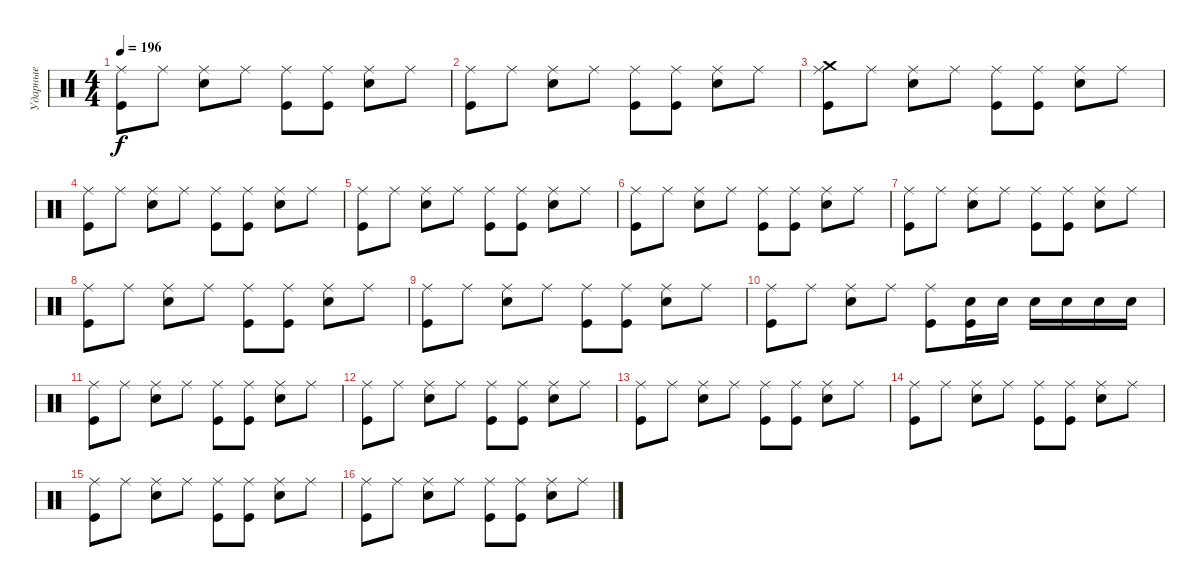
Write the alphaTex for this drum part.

\track ("Ударные" "Ударные") {instrument percussion}
\staff {score}
\articulation defaults
\ts (4 4)
\tempo 196
\clef neutral
\ks c
("Ride (middle)" "Kick (hit)").8{dy f} "Ride (middle)".8 ("Ride (middle)" "Electric Snare (hit)").8 "Ride (middle)".8 ("Ride (middle)" "Kick (hit)").8 ("Ride (middle)" "Kick (hit)").8 ("Ride (middle)" "Electric Snare (hit)").8 "Ride (middle)".8 |
("Ride (middle)" "Kick (hit)").8 "Ride (middle)".8 ("Ride (middle)" "Electric Snare (hit)").8 "Ride (middle)".8 ("Ride (middle)" "Kick (hit)").8 ("Ride (middle)" "Kick (hit)").8 ("Ride (middle)" "Electric Snare (hit)").8 "Ride (middle)".8 |
("Ride (middle)" "Crash medium (hit)" "Kick (hit)").8 "Ride (middle)".8 ("Ride (middle)" "Electric Snare (hit)").8 "Ride (middle)".8 ("Ride (middle)" "Kick (hit)").8 ("Ride (middle)" "Kick (hit)").8 ("Ride (middle)" "Electric Snare (hit)").8 "Ride (middle)".8 |
("Ride (middle)" "Kick (hit)").8 "Ride (middle)".8 ("Ride (middle)" "Electric Snare (hit)").8 "Ride (middle)".8 ("Ride (middle)" "Kick (hit)").8 ("Ride (middle)" "Kick (hit)").8 ("Ride (middle)" "Electric Snare (hit)").8 "Ride (middle)".8 |
("Ride (middle)" "Kick (hit)").8 "Ride (middle)".8 ("Ride (middle)" "Electric Snare (hit)").8 "Ride (middle)".8 ("Ride (middle)" "Kick (hit)").8 ("Ride (middle)" "Kick (hit)").8 ("Ride (middle)" "Electric Snare (hit)").8 "Ride (middle)".8 |
("Ride (middle)" "Kick (hit)").8 "Ride (middle)".8 ("Ride (middle)" "Electric Snare (hit)").8 "Ride (middle)".8 ("Ride (middle)" "Kick (hit)").8 ("Ride (middle)" "Kick (hit)").8 ("Ride (middle)" "Electric Snare (hit)").8 "Ride (middle)".8 |
("Ride (middle)" "Kick (hit)").8 "Ride (middle)".8 ("Ride (middle)" "Electric Snare (hit)").8 "Ride (middle)".8 ("Ride (middle)" "Kick (hit)").8 ("Ride (middle)" "Kick (hit)").8 ("Ride (middle)" "Electric Snare (hit)").8 "Ride (middle)".8 |
("Ride (middle)" "Kick (hit)").8 "Ride (middle)".8 ("Ride (middle)" "Electric Snare (hit)").8 "Ride (middle)".8 ("Ride (middle)" "Kick (hit)").8 ("Ride (middle)" "Kick (hit)").8 ("Ride (middle)" "Electric Snare (hit)").8 "Ride (middle)".8 |
("Ride (middle)" "Kick (hit)").8 "Ride (middle)".8 ("Ride (middle)" "Electric Snare (hit)").8 "Ride (middle)".8 ("Ride (middle)" "Kick (hit)").8 ("Ride (middle)" "Kick (hit)").8 ("Ride (middle)" "Electric Snare (hit)").8 "Ride (middle)".8 |
("Ride (middle)" "Kick (hit)").8 "Ride (middle)".8 ("Ride (middle)" "Electric Snare (hit)").8 "Ride (middle)".8 ("Ride (middle)" "Kick (hit)").8 ("Electric Snare (hit)" "Kick (hit)").16 "Electric Snare (hit)".16 "Electric Snare (hit)".16 "Electric Snare (hit)".16 "Electric Snare (hit)".16 "Electric Snare (hit)".16 |
("Ride (middle)" "Kick (hit)").8 "Ride (middle)".8 ("Ride (middle)" "Electric Snare (hit)").8 "Ride (middle)".8 ("Ride (middle)" "Kick (hit)").8 ("Ride (middle)" "Kick (hit)").8 ("Ride (middle)" "Electric Snare (hit)").8 "Ride (middle)".8 |
("Ride (middle)" "Kick (hit)").8 "Ride (middle)".8 ("Ride (middle)" "Electric Snare (hit)").8 "Ride (middle)".8 ("Ride (middle)" "Kick (hit)").8 ("Ride (middle)" "Kick (hit)").8 ("Ride (middle)" "Electric Snare (hit)").8 "Ride (middle)".8 |
("Ride (middle)" "Kick (hit)").8 "Ride (middle)".8 ("Ride (middle)" "Electric Snare (hit)").8 "Ride (middle)".8 ("Ride (middle)" "Kick (hit)").8 ("Ride (middle)" "Kick (hit)").8 ("Ride (middle)" "Electric Snare (hit)").8 "Ride (middle)".8 |
("Ride (middle)" "Kick (hit)").8 "Ride (middle)".8 ("Ride (middle)" "Electric Snare (hit)").8 "Ride (middle)".8 ("Ride (middle)" "Kick (hit)").8 ("Ride (middle)" "Kick (hit)").8 ("Ride (middle)" "Electric Snare (hit)").8 "Ride (middle)".8 |
("Ride (middle)" "Kick (hit)").8 "Ride (middle)".8 ("Ride (middle)" "Electric Snare (hit)").8 "Ride (middle)".8 ("Ride (middle)" "Kick (hit)").8 ("Ride (middle)" "Kick (hit)").8 ("Ride (middle)" "Electric Snare (hit)").8 "Ride (middle)".8 |
("Ride (middle)" "Kick (hit)").8 "Ride (middle)".8 ("Ride (middle)" "Electric Snare (hit)").8 "Ride (middle)".8 ("Ride (middle)" "Kick (hit)").8 ("Ride (middle)" "Kick (hit)").8 ("Ride (middle)" "Electric Snare (hit)").8 "Ride (middle)".8
